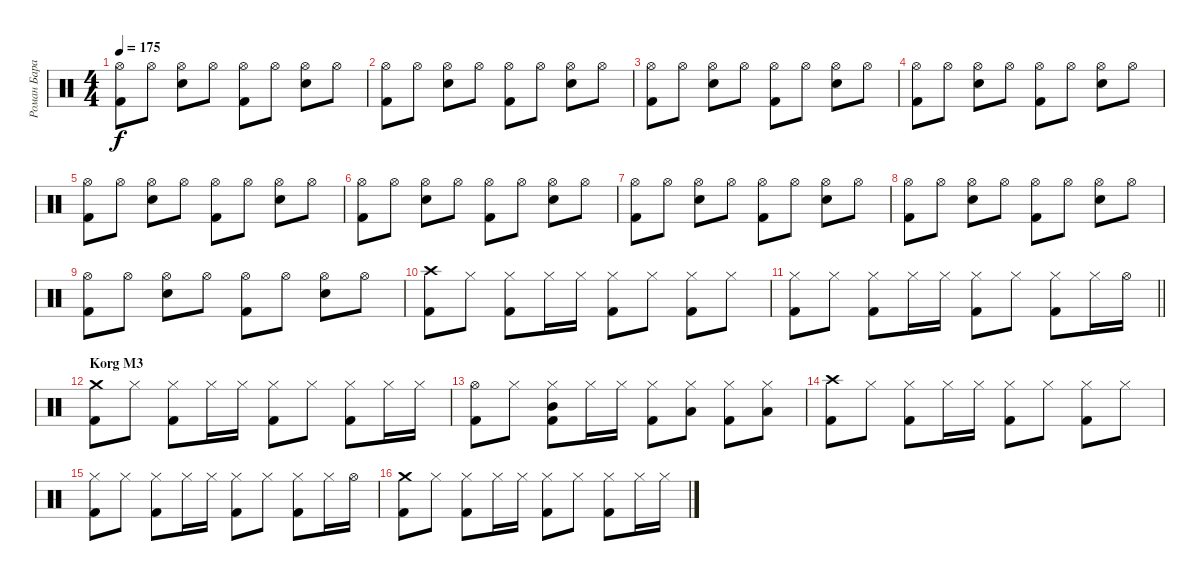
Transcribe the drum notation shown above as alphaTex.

\track ("Роман Баранюк" "Роман Бара") {instrument percussion}
\staff {score}
\articulation defaults
\ts (4 4)
\tempo 175
\clef neutral
\ks c
("Hi-Hat (open)" "Kick (hit) 2").8{dy f} "Hi-Hat (open)".8 ("Hi-Hat (open)" "Snare (hit) 2").8 "Hi-Hat (open)".8 ("Hi-Hat (open)" "Kick (hit) 2").8 "Hi-Hat (open)".8 ("Hi-Hat (open)" "Snare (hit) 2").8 "Hi-Hat (open)".8 |
("Hi-Hat (open)" "Kick (hit) 2").8 "Hi-Hat (open)".8 ("Hi-Hat (open)" "Snare (hit) 2").8 "Hi-Hat (open)".8 ("Hi-Hat (open)" "Kick (hit) 2").8 "Hi-Hat (open)".8 ("Hi-Hat (open)" "Snare (hit) 2").8 "Hi-Hat (open)".8 |
("Hi-Hat (open)" "Kick (hit) 2").8 "Hi-Hat (open)".8 ("Hi-Hat (open)" "Snare (hit) 2").8 "Hi-Hat (open)".8 ("Hi-Hat (open)" "Kick (hit) 2").8 "Hi-Hat (open)".8 ("Hi-Hat (open)" "Snare (hit) 2").8 "Hi-Hat (open)".8 |
("Hi-Hat (open)" "Kick (hit) 2").8 "Hi-Hat (open)".8 ("Hi-Hat (open)" "Snare (hit) 2").8 "Hi-Hat (open)".8 ("Hi-Hat (open)" "Kick (hit) 2").8 "Hi-Hat (open)".8 ("Hi-Hat (open)" "Snare (hit) 2").8 "Hi-Hat (open)".8 |
("Hi-Hat (open)" "Kick (hit) 2").8 "Hi-Hat (open)".8 ("Hi-Hat (open)" "Snare (hit) 2").8 "Hi-Hat (open)".8 ("Hi-Hat (open)" "Kick (hit) 2").8 "Hi-Hat (open)".8 ("Hi-Hat (open)" "Snare (hit) 2").8 "Hi-Hat (open)".8 |
("Hi-Hat (open)" "Kick (hit) 2").8 "Hi-Hat (open)".8 ("Hi-Hat (open)" "Snare (hit) 2").8 "Hi-Hat (open)".8 ("Hi-Hat (open)" "Kick (hit) 2").8 "Hi-Hat (open)".8 ("Hi-Hat (open)" "Snare (hit) 2").8 "Hi-Hat (open)".8 |
("Hi-Hat (open)" "Kick (hit) 2").8 "Hi-Hat (open)".8 ("Hi-Hat (open)" "Snare (hit) 2").8 "Hi-Hat (open)".8 ("Hi-Hat (open)" "Kick (hit) 2").8 "Hi-Hat (open)".8 ("Hi-Hat (open)" "Snare (hit) 2").8 "Hi-Hat (open)".8 |
("Hi-Hat (open)" "Kick (hit) 2").8 "Hi-Hat (open)".8 ("Hi-Hat (open)" "Snare (hit) 2").8 "Hi-Hat (open)".8 ("Hi-Hat (open)" "Kick (hit) 2").8 "Hi-Hat (open)".8 ("Hi-Hat (open)" "Snare (hit) 2").8 "Hi-Hat (open)".8 |
("Hi-Hat (open)" "Kick (hit) 2").8 "Hi-Hat (open)".8 ("Hi-Hat (open)" "Snare (hit) 2").8 "Hi-Hat (open)".8 ("Hi-Hat (open)" "Kick (hit) 2").8 "Hi-Hat (open)".8 ("Hi-Hat (open)" "Snare (hit) 2").8 "Hi-Hat (open)".8 |
("Crash high (hit)" "Kick (hit) 2").8 "Hi-Hat (closed)".8 ("Hi-Hat (closed)" "Kick (hit) 2").8 "Hi-Hat (closed)".16 "Hi-Hat (closed)".16 ("Hi-Hat (closed)" "Kick (hit) 2").8 "Hi-Hat (closed)".8 ("Hi-Hat (closed)" "Kick (hit) 2").8 "Hi-Hat (closed)".8 |
\barLineRight lightlight
("Hi-Hat (closed)" "Kick (hit) 2").8 "Hi-Hat (closed)".8 ("Hi-Hat (closed)" "Kick (hit) 2").8 "Hi-Hat (closed)".16 "Hi-Hat (closed)".16 ("Hi-Hat (closed)" "Kick (hit) 2").8 "Hi-Hat (closed)".8 ("Hi-Hat (closed)" "Kick (hit) 2").8 "Hi-Hat (closed)".16 "Hi-Hat (open)".16 |
\section ("" "Korg M3")
("Crash medium (hit)" "Kick (hit) 2").8 "Hi-Hat (closed)".8 ("Hi-Hat (closed)" "Kick (hit) 2").8 "Hi-Hat (closed)".16 "Hi-Hat (closed)".16 ("Hi-Hat (closed)" "Kick (hit) 2").8 "Hi-Hat (closed)".8 ("Hi-Hat (closed)" "Kick (hit) 2").8 "Hi-Hat (closed)".16 "Hi-Hat (closed)".16 |
("Hi-Hat (open)" "Kick (hit) 2").8 "Hi-Hat (closed)".8 ("Hi-Hat (closed)" "Mid Tom (hit)" "Kick (hit) 2").8 "Hi-Hat (closed)".16 "Hi-Hat (closed)".16 ("Hi-Hat (closed)" "Kick (hit) 2").8 ("Hi-Hat (closed)" "Low Tom (hit)").8 ("Hi-Hat (closed)" "Kick (hit) 2").8 ("Hi-Hat (closed)" "Low Tom (hit)").8 |
("Crash high (hit)" "Kick (hit) 2").8 "Hi-Hat (closed)".8 ("Hi-Hat (closed)" "Kick (hit) 2").8 "Hi-Hat (closed)".16 "Hi-Hat (closed)".16 ("Hi-Hat (closed)" "Kick (hit) 2").8 "Hi-Hat (closed)".8 ("Hi-Hat (closed)" "Kick (hit) 2").8 "Hi-Hat (closed)".8 |
("Hi-Hat (closed)" "Kick (hit) 2").8 "Hi-Hat (closed)".8 ("Hi-Hat (closed)" "Kick (hit) 2").8 "Hi-Hat (closed)".16 "Hi-Hat (closed)".16 ("Hi-Hat (closed)" "Kick (hit) 2").8 "Hi-Hat (closed)".8 ("Hi-Hat (closed)" "Kick (hit) 2").8 "Hi-Hat (closed)".16 "Hi-Hat (open)".16 |
("Crash medium (hit)" "Kick (hit) 2").8 "Hi-Hat (closed)".8 ("Hi-Hat (closed)" "Kick (hit) 2").8 "Hi-Hat (closed)".16 "Hi-Hat (closed)".16 ("Hi-Hat (closed)" "Kick (hit) 2").8 "Hi-Hat (closed)".8 ("Hi-Hat (closed)" "Kick (hit) 2").8 "Hi-Hat (closed)".16 "Hi-Hat (closed)".16
